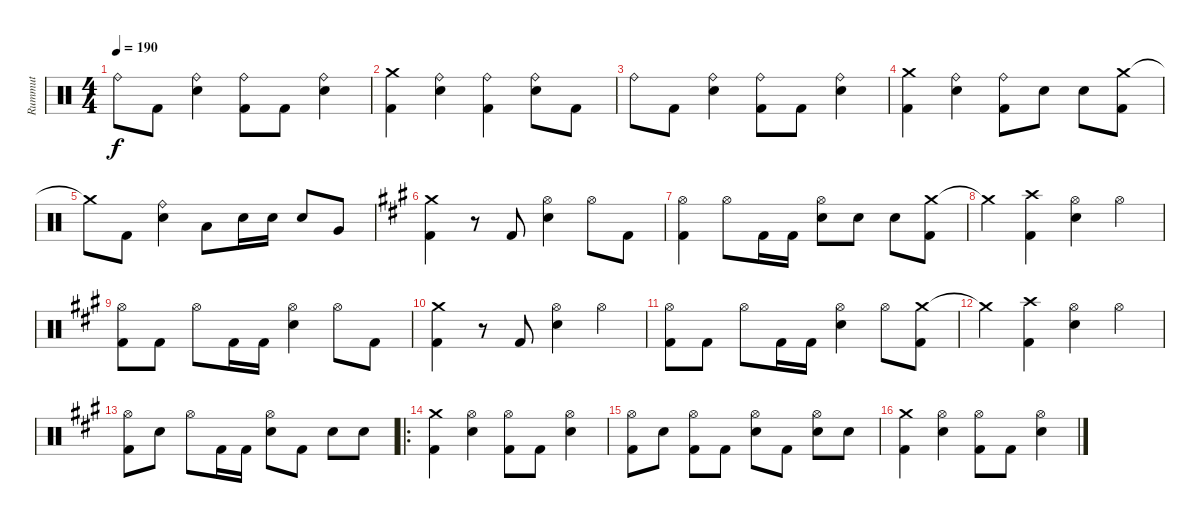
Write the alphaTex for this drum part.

\track ("Rummut" "Rummut") {instrument percussion}
\staff {score}
\articulation defaults
\ts (4 4)
\tempo 190
\clef neutral
\ks c "Ride (bell)".8{dy f} "Kick (hit) 2".8
("Ride (bell)" "Snare (hit) 2").4 ("Ride (bell)" "Kick (hit) 2").8 "Kick (hit) 2".8 ("Ride (bell)" "Snare (hit) 2").4 |
("Crash medium (hit)" "Kick (hit) 2").4 ("Ride (bell)" "Snare (hit) 2").4 ("Ride (bell)" "Kick (hit) 2").4 ("Ride (bell)" "Snare (hit) 2").8 "Kick (hit) 2".8 |
"Ride (bell)".8 "Kick (hit) 2".8 ("Ride (bell)" "Snare (hit) 2").4 ("Ride (bell)" "Kick (hit) 2").8 "Kick (hit) 2".8 ("Ride (bell)" "Snare (hit) 2").4 |
("Crash medium (hit)" "Kick (hit) 2").4 ("Ride (bell)" "Snare (hit) 2").4 ("Ride (bell)" "Kick (hit) 2").8 "Snare (hit) 2".8 "Snare (hit) 2".8 ("Crash medium (hit)" "Kick (hit) 2").8 |
"Crash medium (hit)"{t}.8 "Kick (hit) 2".8 ("Ride (bell)" "Snare (hit) 2").4 "Low Tom (hit)".8 "Snare (hit) 2".16 "Snare (hit) 2".16 "Snare (hit) 2".8 "Very Low Tom (hit)".8 |
\ks a
("Crash medium (hit)" "Kick (hit) 2").4 r.8 "Kick (hit) 2".8 ("Hi-Hat (open)" "Snare (hit) 2").4 "Hi-Hat (open)".8 "Kick (hit) 2".8 |
("Hi-Hat (open)" "Kick (hit) 2").4 "Hi-Hat (open)".8 "Kick (hit) 2".16 "Kick (hit) 2".16 ("Hi-Hat (open)" "Snare (hit) 2").8 "Snare (hit) 2".8 "Snare (hit) 2".8 ("Crash medium (hit)" "Kick (hit) 2").8 |
"Crash medium (hit)"{t}.4 ("Crash high (hit)" "Kick (hit) 2").4 ("Hi-Hat (open)" "Snare (hit) 2").4 "Hi-Hat (open)".4 |
("Hi-Hat (open)" "Kick (hit) 2").8 "Kick (hit) 2".8 "Hi-Hat (open)".8 "Kick (hit) 2".16 "Kick (hit) 2".16 ("Hi-Hat (open)" "Snare (hit) 2").4 "Hi-Hat (open)".8 "Kick (hit) 2".8 |
("Crash medium (hit)" "Kick (hit) 2").4 r.8 "Kick (hit) 2".8 ("Hi-Hat (open)" "Snare (hit) 2").4 "Hi-Hat (open)".4 |
("Hi-Hat (open)" "Kick (hit) 2").8 "Kick (hit) 2".8 "Hi-Hat (open)".8 "Kick (hit) 2".16 "Kick (hit) 2".16 ("Hi-Hat (open)" "Snare (hit) 2").4 "Hi-Hat (open)".8 ("Crash medium (hit)" "Kick (hit) 2").8 |
"Crash medium (hit)"{t}.4 ("Crash high (hit)" "Kick (hit) 2").4 ("Hi-Hat (open)" "Snare (hit) 2").4 "Hi-Hat (open)".4 |
("Hi-Hat (open)" "Kick (hit) 2").8 "Snare (hit) 2".8 "Hi-Hat (open)".8 "Kick (hit) 2".16 "Kick (hit) 2".16 ("Hi-Hat (open)" "Snare (hit) 2").8 "Kick (hit) 2".8 "Snare (hit) 2".8 "Snare (hit) 2".8 |
\ro
("Crash medium (hit)" "Kick (hit) 2").4 ("Hi-Hat (open)" "Snare (hit) 2").4 ("Hi-Hat (open)" "Kick (hit) 2").8 "Kick (hit) 2".8 ("Hi-Hat (open)" "Snare (hit) 2").4 |
("Hi-Hat (open)" "Kick (hit) 2").8 "Snare (hit) 2".8 ("Hi-Hat (open)" "Kick (hit) 2").8 "Kick (hit) 2".8 ("Hi-Hat (open)" "Snare (hit) 2").8 "Kick (hit) 2".8 ("Hi-Hat (open)" "Snare (hit) 2").8 "Snare (hit) 2".8 |
("Crash medium (hit)" "Kick (hit) 2").4 ("Hi-Hat (open)" "Snare (hit) 2").4 ("Hi-Hat (open)" "Kick (hit) 2").8 "Kick (hit) 2".8 ("Hi-Hat (open)" "Snare (hit) 2").4
